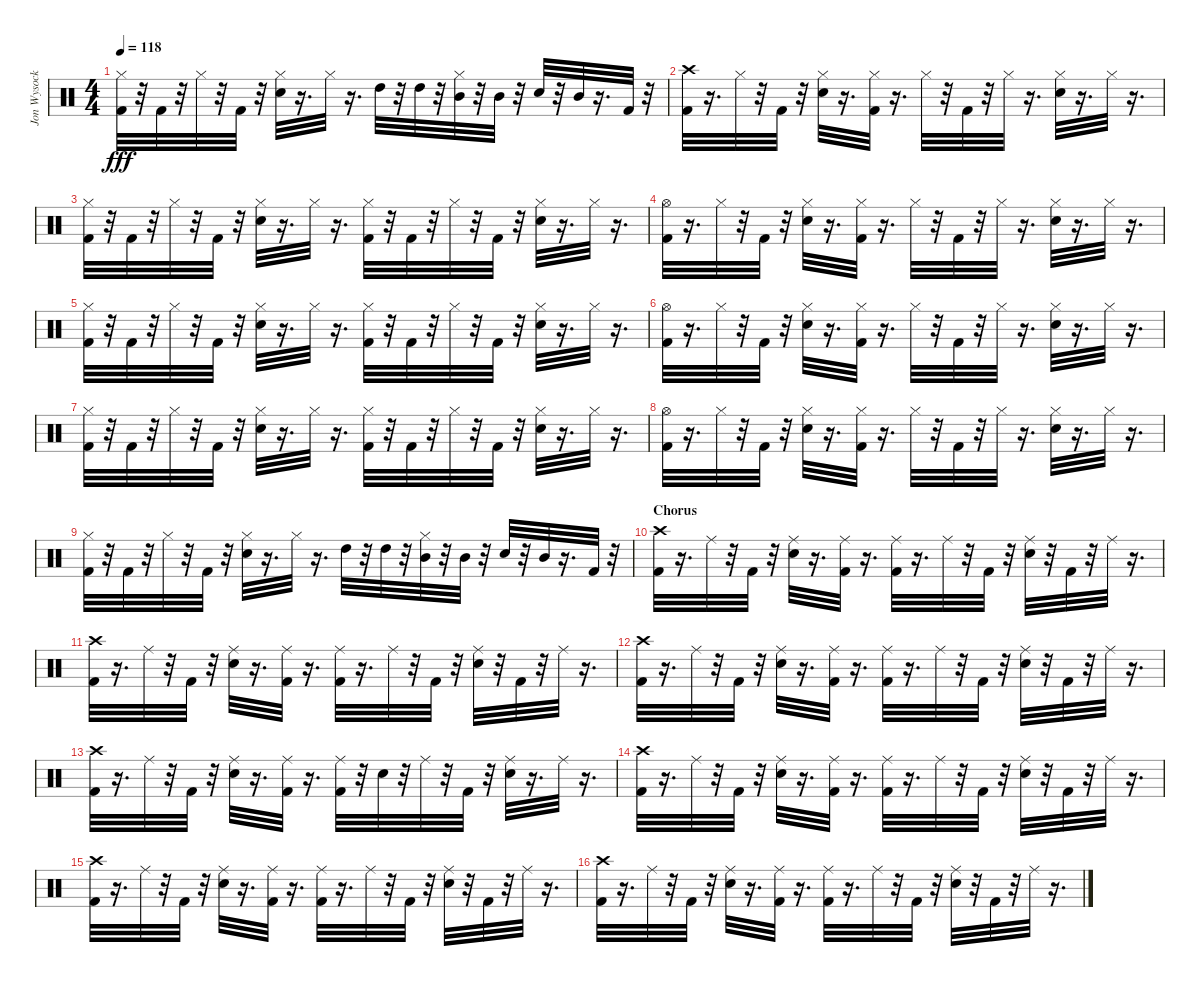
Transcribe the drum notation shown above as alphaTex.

\track ("Jon Wysocki - Drums" "Jon Wysock") {instrument percussion}
\staff {score}
\articulation defaults
\ts (4 4)
\tempo 118
\clef neutral
\ks c
("Hi-Hat (closed)" "Kick (hit) 2").32{dy fff} r.32 "Kick (hit) 2".32 r.32 "Hi-Hat (closed)".32 r.32 "Kick (hit) 2".32 r.32 ("Hi-Hat (closed)" "Electric Snare (hit)").32 r.16{d} "Hi-Hat (closed)".32 r.16{d} "High Tom (hit)".32 r.32 "High Tom (hit)".32 r.32 ("Hi-Hat (closed)" "Mid Tom (hit)").32 r.32 "Mid Tom (hit)".32 r.32 "Electric Snare (hit)".32 r.32 "Mid Tom (hit)".32 r.16{d} "Kick (hit) 2".32 r.32 |
("Crash high (hit)" "Kick (hit) 2").32 r.16{d} "Hi-Hat (closed)".32 r.32 "Kick (hit) 2".32 r.32 ("Electric Snare (hit)" "Hi-Hat (closed)").32 r.16{d} ("Hi-Hat (closed)" "Kick (hit) 2").32 r.16{d} "Hi-Hat (closed)".32 r.32 "Kick (hit) 2".32 r.32 "Hi-Hat (closed)".32 r.16{d} ("Electric Snare (hit)" "Hi-Hat (closed)").32 r.16{d} "Hi-Hat (closed)".32 r.16{d} |
("Hi-Hat (closed)" "Kick (hit) 2").32 r.32 "Kick (hit) 2".32 r.32 "Hi-Hat (closed)".32 r.32 "Kick (hit) 2".32 r.32 ("Hi-Hat (closed)" "Electric Snare (hit)").32 r.16{d} "Hi-Hat (closed)".32 r.16{d} ("Hi-Hat (closed)" "Kick (hit) 2").32 r.32 "Kick (hit) 2".32 r.32 "Hi-Hat (closed)".32 r.32 "Kick (hit) 2".32 r.32 ("Hi-Hat (closed)" "Electric Snare (hit)").32 r.16{d} "Hi-Hat (closed)".32 r.16{d} |
("Kick (hit) 2" "Hi-Hat (open)").32 r.16{d} "Hi-Hat (closed)".32 r.32 "Kick (hit) 2".32 r.32 ("Electric Snare (hit)" "Hi-Hat (closed)").32 r.16{d} ("Hi-Hat (closed)" "Kick (hit) 2").32 r.16{d} "Hi-Hat (closed)".32 r.32 "Kick (hit) 2".32 r.32 "Hi-Hat (closed)".32 r.16{d} ("Electric Snare (hit)" "Hi-Hat (closed)").32 r.16{d} "Hi-Hat (closed)".32 r.16{d} |
("Hi-Hat (closed)" "Kick (hit) 2").32 r.32 "Kick (hit) 2".32 r.32 "Hi-Hat (closed)".32 r.32 "Kick (hit) 2".32 r.32 ("Hi-Hat (closed)" "Electric Snare (hit)").32 r.16{d} "Hi-Hat (closed)".32 r.16{d} ("Hi-Hat (closed)" "Kick (hit) 2").32 r.32 "Kick (hit) 2".32 r.32 "Hi-Hat (closed)".32 r.32 "Kick (hit) 2".32 r.32 ("Hi-Hat (closed)" "Electric Snare (hit)").32 r.16{d} "Hi-Hat (closed)".32 r.16{d} |
("Kick (hit) 2" "Hi-Hat (open)").32 r.16{d} "Hi-Hat (closed)".32 r.32 "Kick (hit) 2".32 r.32 ("Electric Snare (hit)" "Hi-Hat (closed)").32 r.16{d} ("Hi-Hat (closed)" "Kick (hit) 2").32 r.16{d} "Hi-Hat (closed)".32 r.32 "Kick (hit) 2".32 r.32 "Hi-Hat (closed)".32 r.16{d} ("Electric Snare (hit)" "Hi-Hat (closed)").32 r.16{d} "Hi-Hat (closed)".32 r.16{d} |
("Hi-Hat (closed)" "Kick (hit) 2").32 r.32 "Kick (hit) 2".32 r.32 "Hi-Hat (closed)".32 r.32 "Kick (hit) 2".32 r.32 ("Hi-Hat (closed)" "Electric Snare (hit)").32 r.16{d} "Hi-Hat (closed)".32 r.16{d} ("Hi-Hat (closed)" "Kick (hit) 2").32 r.32 "Kick (hit) 2".32 r.32 "Hi-Hat (closed)".32 r.32 "Kick (hit) 2".32 r.32 ("Hi-Hat (closed)" "Electric Snare (hit)").32 r.16{d} "Hi-Hat (closed)".32 r.16{d} |
("Kick (hit) 2" "Hi-Hat (open)").32 r.16{d} "Hi-Hat (closed)".32 r.32 "Kick (hit) 2".32 r.32 ("Electric Snare (hit)" "Hi-Hat (closed)").32 r.16{d} ("Hi-Hat (closed)" "Kick (hit) 2").32 r.16{d} "Hi-Hat (closed)".32 r.32 "Kick (hit) 2".32 r.32 "Hi-Hat (closed)".32 r.16{d} ("Electric Snare (hit)" "Hi-Hat (closed)").32 r.16{d} "Hi-Hat (closed)".32 r.16{d} |
("Hi-Hat (closed)" "Kick (hit) 2").32 r.32 "Kick (hit) 2".32 r.32 "Hi-Hat (closed)".32 r.32 "Kick (hit) 2".32 r.32 ("Hi-Hat (closed)" "Electric Snare (hit)").32 r.16{d} "Hi-Hat (closed)".32 r.16{d} "High Tom (hit)".32 r.32 "High Tom (hit)".32 r.32 ("Hi-Hat (closed)" "Mid Tom (hit)").32 r.32 "Mid Tom (hit)".32 r.32 "Electric Snare (hit)".32 r.32 "Mid Tom (hit)".32 r.16{d} "Kick (hit) 2".32 r.32 |
\section ("" "Chorus")
("Kick (hit) 2" "Crash high (hit)").32 r.16{d} "Ride (middle)".32 r.32 "Kick (hit) 2".32 r.32 ("Ride (middle)" "Electric Snare (hit)").32 r.16{d} ("Ride (middle)" "Kick (hit) 2").32 r.16{d} ("Ride (middle)" "Kick (hit) 2").32 r.16{d} "Ride (middle)".32 r.32 "Kick (hit) 2".32 r.32 ("Ride (middle)" "Electric Snare (hit)").32 r.32 "Kick (hit) 2".32 r.32 "Ride (middle)".32 r.16{d} |
("Crash high (hit)" "Kick (hit) 2").32 r.16{d} "Ride (middle)".32 r.32 "Kick (hit) 2".32 r.32 ("Electric Snare (hit)" "Ride (middle)").32 r.16{d} ("Kick (hit) 2" "Ride (middle)").32 r.16{d} ("Kick (hit) 2" "Ride (middle)").32 r.16{d} "Ride (middle)".32 r.32 "Kick (hit) 2".32 r.32 ("Electric Snare (hit)" "Ride (middle)").32 r.32 "Kick (hit) 2".32 r.32 "Ride (middle)".32 r.16{d} |
("Crash high (hit)" "Kick (hit) 2").32 r.16{d} "Ride (middle)".32 r.32 "Kick (hit) 2".32 r.32 ("Electric Snare (hit)" "Ride (middle)").32 r.16{d} ("Kick (hit) 2" "Ride (middle)").32 r.16{d} ("Kick (hit) 2" "Ride (middle)").32 r.16{d} "Ride (middle)".32 r.32 "Kick (hit) 2".32 r.32 ("Electric Snare (hit)" "Ride (middle)").32 r.32 "Kick (hit) 2".32 r.32 "Ride (middle)".32 r.16{d} |
("Crash high (hit)" "Kick (hit) 2").32 r.16{d} "Ride (middle)".32 r.32 "Kick (hit) 2".32 r.32 ("Ride (middle)" "Electric Snare (hit)").32 r.16{d} ("Ride (middle)" "Kick (hit) 2").32 r.16{d} ("Ride (middle)" "Kick (hit) 2").32 r.32 "Electric Snare (hit)".32 r.32 "Ride (middle)".32 r.32 "Kick (hit) 2".32 r.32 ("Ride (middle)" "Electric Snare (hit)").32 r.16{d} "Ride (middle)".32 r.16{d} |
("Kick (hit) 2" "Crash high (hit)").32 r.16{d} "Ride (middle)".32 r.32 "Kick (hit) 2".32 r.32 ("Ride (middle)" "Electric Snare (hit)").32 r.16{d} ("Ride (middle)" "Kick (hit) 2").32 r.16{d} ("Ride (middle)" "Kick (hit) 2").32 r.16{d} "Ride (middle)".32 r.32 "Kick (hit) 2".32 r.32 ("Ride (middle)" "Electric Snare (hit)").32 r.32 "Kick (hit) 2".32 r.32 "Ride (middle)".32 r.16{d} |
("Crash high (hit)" "Kick (hit) 2").32 r.16{d} "Ride (middle)".32 r.32 "Kick (hit) 2".32 r.32 ("Electric Snare (hit)" "Ride (middle)").32 r.16{d} ("Kick (hit) 2" "Ride (middle)").32 r.16{d} ("Kick (hit) 2" "Ride (middle)").32 r.16{d} "Ride (middle)".32 r.32 "Kick (hit) 2".32 r.32 ("Electric Snare (hit)" "Ride (middle)").32 r.32 "Kick (hit) 2".32 r.32 "Ride (middle)".32 r.16{d} |
("Crash high (hit)" "Kick (hit) 2").32 r.16{d} "Ride (middle)".32 r.32 "Kick (hit) 2".32 r.32 ("Electric Snare (hit)" "Ride (middle)").32 r.16{d} ("Kick (hit) 2" "Ride (middle)").32 r.16{d} ("Kick (hit) 2" "Ride (middle)").32 r.16{d} "Ride (middle)".32 r.32 "Kick (hit) 2".32 r.32 ("Electric Snare (hit)" "Ride (middle)").32 r.32 "Kick (hit) 2".32 r.32 "Ride (middle)".32 r.16{d}
